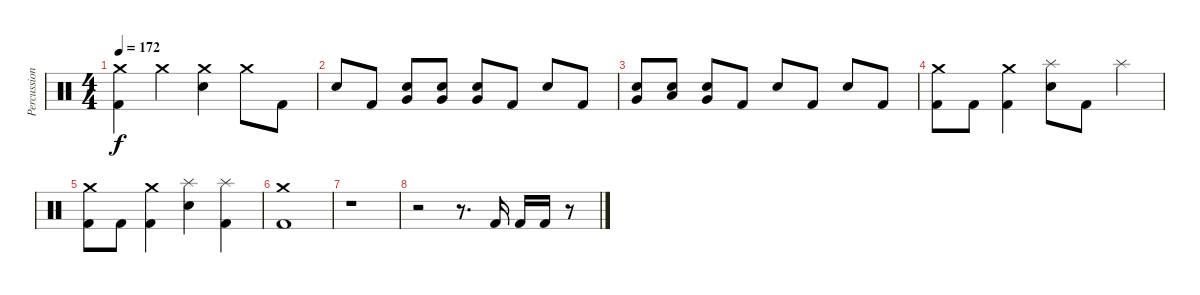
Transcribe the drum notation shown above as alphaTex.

\track ("Percussion" "Percussion") {instrument percussion}
\staff {score}
\articulation defaults
\ts (4 4)
\tempo 172
\clef neutral
\ks c
("Crash medium (hit)" "Kick (hit) 2").4{dy f} "Crash medium (hit)".4 ("Crash medium (hit)" "Electric Snare (hit)").4 "Crash medium (hit)".8 "Kick (hit) 2".8 |
"Electric Snare (hit)".8 "Kick (hit) 2".8 ("Electric Snare (hit)" "Very Low Tom (hit)").8 ("Electric Snare (hit)" "Very Low Tom (hit)").8 ("Electric Snare (hit)" "Very Low Tom (hit)").8 "Kick (hit) 2".8 "Electric Snare (hit)".8 "Kick (hit) 2".8 |
("Electric Snare (hit)" "Very Low Tom (hit)").8 ("Electric Snare (hit)" "Low Floor Tom (hit)").8 ("Electric Snare (hit)" "Very Low Tom (hit)").8 "Kick (hit) 2".8 "Electric Snare (hit)".8 "Kick (hit) 2".8 "Electric Snare (hit)".8 "Kick (hit) 2".8 |
("Crash medium (hit)" "Kick (hit) 2").8 "Kick (hit) 2".8 ("Crash medium (hit)" "Kick (hit) 2").4 ("Splash (hit)" "Electric Snare (hit)").8 "Kick (hit) 2".8 "Splash (hit)".4 |
("Crash medium (hit)" "Kick (hit) 2").8 "Kick (hit) 2".8 ("Crash medium (hit)" "Kick (hit) 2").4 ("Splash (hit)" "Electric Snare (hit)").4 ("Splash (hit)" "Kick (hit) 2").4 |
("Crash medium (hit)" "Kick (hit) 2").1 |
r.1 |
r.2 r.8{d} "Kick (hit) 2".16 "Kick (hit) 2".16 "Kick (hit) 2".16 r.8
